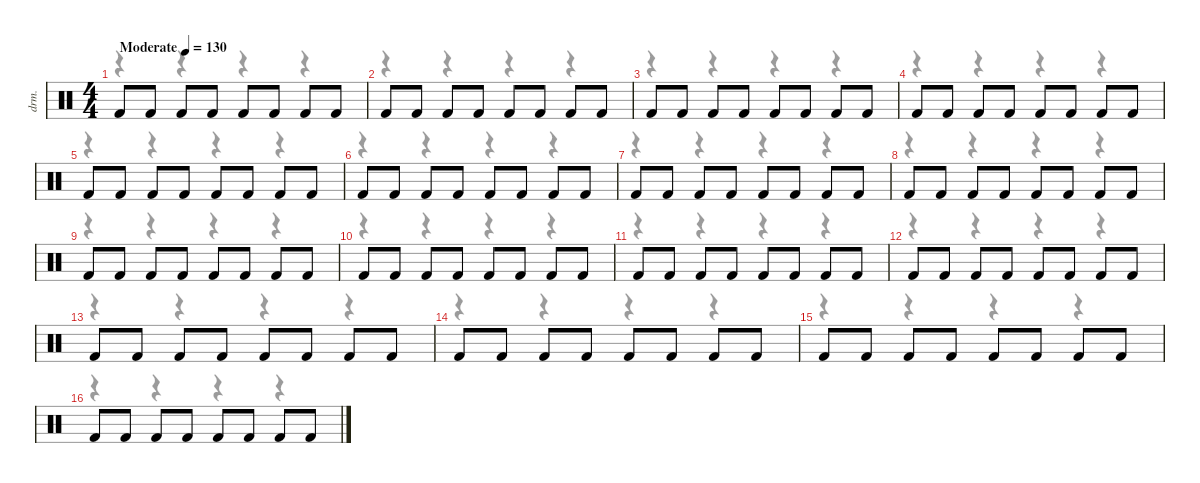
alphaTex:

\defaultSystemsLayout 4
\hideDynamics
\bracketExtendMode nobrackets
\track ("Shaker" "drm.") {instrument percussion}
\staff {score}
\articulation defaults
\voice
\ts (4 4)
\beaming (8 2 2 2 2)
\tempo (130 "Moderate")
\clef neutral
\ks c "Kick (hit) 2".8{dy pp} "Kick (hit) 2".8 "Kick (hit) 2".8 "Kick (hit) 2".8 "Kick (hit) 2".8 "Kick (hit) 2".8 "Kick (hit) 2".8 "Kick (hit) 2".8
|
"Kick (hit) 2".8 "Kick (hit) 2".8 "Kick (hit) 2".8 "Kick (hit) 2".8 "Kick (hit) 2".8 "Kick (hit) 2".8 "Kick (hit) 2".8 "Kick (hit) 2".8 |
"Kick (hit) 2".8 "Kick (hit) 2".8 "Kick (hit) 2".8 "Kick (hit) 2".8 "Kick (hit) 2".8 "Kick (hit) 2".8 "Kick (hit) 2".8 "Kick (hit) 2".8 |
"Kick (hit) 2".8 "Kick (hit) 2".8 "Kick (hit) 2".8 "Kick (hit) 2".8 "Kick (hit) 2".8 "Kick (hit) 2".8 "Kick (hit) 2".8 "Kick (hit) 2".8 |
"Kick (hit) 2".8 "Kick (hit) 2".8 "Kick (hit) 2".8 "Kick (hit) 2".8 "Kick (hit) 2".8 "Kick (hit) 2".8 "Kick (hit) 2".8 "Kick (hit) 2".8 |
"Kick (hit) 2".8 "Kick (hit) 2".8 "Kick (hit) 2".8 "Kick (hit) 2".8 "Kick (hit) 2".8 "Kick (hit) 2".8 "Kick (hit) 2".8 "Kick (hit) 2".8 |
"Kick (hit) 2".8 "Kick (hit) 2".8 "Kick (hit) 2".8 "Kick (hit) 2".8 "Kick (hit) 2".8 "Kick (hit) 2".8 "Kick (hit) 2".8 "Kick (hit) 2".8 |
"Kick (hit) 2".8 "Kick (hit) 2".8 "Kick (hit) 2".8 "Kick (hit) 2".8 "Kick (hit) 2".8 "Kick (hit) 2".8 "Kick (hit) 2".8 "Kick (hit) 2".8 |
"Kick (hit) 2".8 "Kick (hit) 2".8 "Kick (hit) 2".8 "Kick (hit) 2".8 "Kick (hit) 2".8 "Kick (hit) 2".8 "Kick (hit) 2".8 "Kick (hit) 2".8 |
"Kick (hit) 2".8 "Kick (hit) 2".8 "Kick (hit) 2".8 "Kick (hit) 2".8 "Kick (hit) 2".8 "Kick (hit) 2".8 "Kick (hit) 2".8 "Kick (hit) 2".8 |
"Kick (hit) 2".8 "Kick (hit) 2".8 "Kick (hit) 2".8 "Kick (hit) 2".8 "Kick (hit) 2".8 "Kick (hit) 2".8 "Kick (hit) 2".8 "Kick (hit) 2".8 |
"Kick (hit) 2".8 "Kick (hit) 2".8 "Kick (hit) 2".8 "Kick (hit) 2".8 "Kick (hit) 2".8 "Kick (hit) 2".8 "Kick (hit) 2".8 "Kick (hit) 2".8 |
"Kick (hit) 2".8 "Kick (hit) 2".8 "Kick (hit) 2".8 "Kick (hit) 2".8 "Kick (hit) 2".8 "Kick (hit) 2".8 "Kick (hit) 2".8 "Kick (hit) 2".8 |
"Kick (hit) 2".8 "Kick (hit) 2".8 "Kick (hit) 2".8 "Kick (hit) 2".8 "Kick (hit) 2".8 "Kick (hit) 2".8 "Kick (hit) 2".8 "Kick (hit) 2".8 |
"Kick (hit) 2".8 "Kick (hit) 2".8 "Kick (hit) 2".8 "Kick (hit) 2".8 "Kick (hit) 2".8 "Kick (hit) 2".8 "Kick (hit) 2".8 "Kick (hit) 2".8 |
"Kick (hit) 2".8 "Kick (hit) 2".8 "Kick (hit) 2".8 "Kick (hit) 2".8 "Kick (hit) 2".8 "Kick (hit) 2".8 "Kick (hit) 2".8 "Kick (hit) 2".8
\voice
\clef neutral
\ottava regular
\simile none
\ks c
r.4{dy mf} r.4 r.4 r.4 |
r.4 r.4 r.4 r.4 |
r.4 r.4 r.4 r.4 |
r.4 r.4 r.4 r.4 |
r.4 r.4 r.4 r.4 |
r.4 r.4 r.4 r.4 |
r.4 r.4 r.4 r.4 |
r.4 r.4 r.4 r.4 |
r.4 r.4 r.4 r.4 |
r.4 r.4 r.4 r.4 |
r.4 r.4 r.4 r.4 |
r.4 r.4 r.4 r.4 |
r.4 r.4 r.4 r.4 |
r.4 r.4 r.4 r.4 |
r.4 r.4 r.4 r.4 |
r.4 r.4 r.4 r.4
